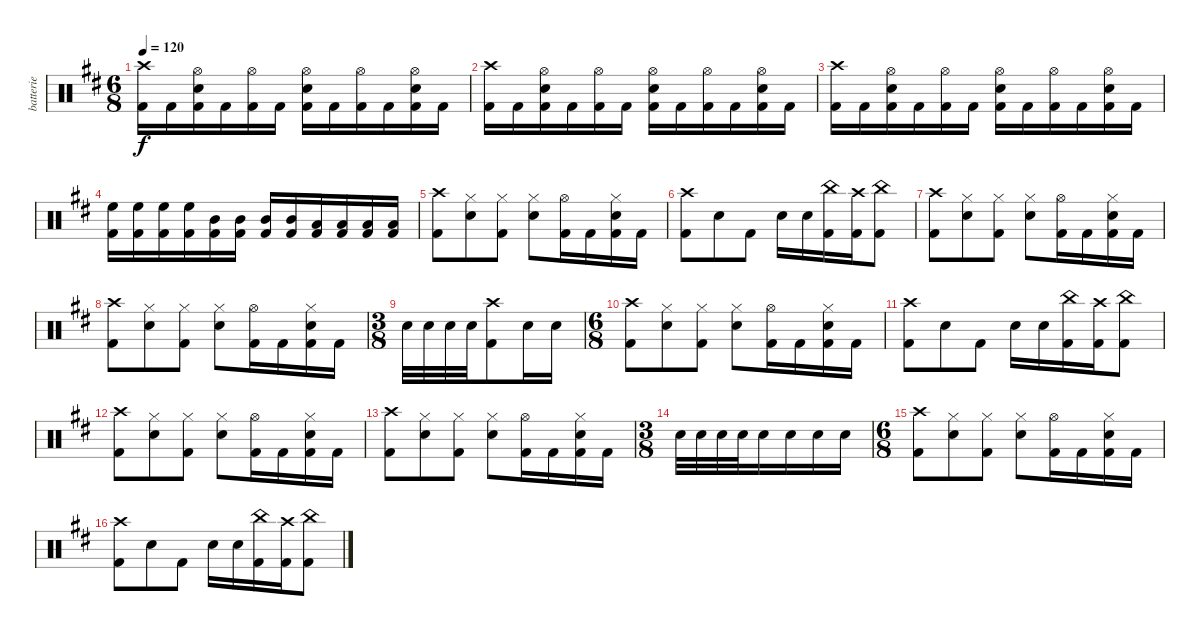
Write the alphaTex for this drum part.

\track ("batterie" "batterie") {instrument percussion}
\staff {score}
\articulation defaults
\ts (6 8)
\tempo 120
\clef neutral
\ks bminor
("Crash high (hit)" "Kick (hit) 2").16{dy f} "Kick (hit) 2".16 ("Hi-Hat (open)" "Snare (hit) 2" "Kick (hit) 2").16 "Kick (hit) 2".16 ("Hi-Hat (open)" "Kick (hit) 2").16 "Kick (hit) 2".16 ("Hi-Hat (open)" "Snare (hit) 2" "Kick (hit) 2").16 "Kick (hit) 2".16 ("Hi-Hat (open)" "Kick (hit) 2").16 "Kick (hit) 2".16 ("Hi-Hat (open)" "Snare (hit) 2" "Kick (hit) 2").16 "Kick (hit) 2".16 |
("Crash high (hit)" "Kick (hit) 2").16 "Kick (hit) 2".16 ("Hi-Hat (open)" "Snare (hit) 2" "Kick (hit) 2").16 "Kick (hit) 2".16 ("Hi-Hat (open)" "Kick (hit) 2").16 "Kick (hit) 2".16 ("Hi-Hat (open)" "Snare (hit) 2" "Kick (hit) 2").16 "Kick (hit) 2".16 ("Hi-Hat (open)" "Kick (hit) 2").16 "Kick (hit) 2".16 ("Hi-Hat (open)" "Snare (hit) 2" "Kick (hit) 2").16 "Kick (hit) 2".16 |
("Crash high (hit)" "Kick (hit) 2").16 "Kick (hit) 2".16 ("Hi-Hat (open)" "Snare (hit) 2" "Kick (hit) 2").16 "Kick (hit) 2".16 ("Hi-Hat (open)" "Kick (hit) 2").16 "Kick (hit) 2".16 ("Hi-Hat (open)" "Snare (hit) 2" "Kick (hit) 2").16 "Kick (hit) 2".16 ("Hi-Hat (open)" "Kick (hit) 2").16 "Kick (hit) 2".16 ("Hi-Hat (open)" "Snare (hit) 2" "Kick (hit) 2").16 "Kick (hit) 2".16 |
("High Floor Tom (hit)" "Kick (hit) 2").16 ("High Floor Tom (hit)" "Kick (hit) 2").16 ("High Floor Tom (hit)" "Kick (hit) 2").16 ("High Floor Tom (hit)" "Kick (hit) 2").16 ("Mid Tom (hit)" "Kick (hit) 2").16 ("Mid Tom (hit)" "Kick (hit) 2").16 ("Mid Tom (hit)" "Kick (hit) 2").16 ("Mid Tom (hit)" "Kick (hit) 2").16 ("Low Tom (hit)" "Kick (hit) 2").16 ("Low Tom (hit)" "Kick (hit) 2").16 ("Low Tom (hit)" "Kick (hit) 2").16 ("Low Tom (hit)" "Kick (hit) 2").16 |
("Crash high (hit)" "Kick (hit) 2").8 ("Hi-Hat (closed)" "Snare (hit) 2").8 ("Hi-Hat (closed)" "Kick (hit) 2").8 ("Hi-Hat (closed)" "Snare (hit) 2").8 ("Hi-Hat (open)" "Kick (hit) 2").16 "Kick (hit) 2".16 ("Hi-Hat (closed)" "Snare (hit) 2" "Kick (hit) 2").16 "Kick (hit) 2".16 |
("Crash high (hit)" "Kick (hit) 2").8 "Snare (hit) 2".8 "Kick (hit) 2".8 "Snare (hit) 2".16 "Snare (hit) 2".16 ("China (hit)" "Kick (hit) 2").16 ("Crash high (hit)" "Kick (hit) 2").16 ("China (hit)" "Kick (hit) 2").8 |
("Crash high (hit)" "Kick (hit) 2").8 ("Hi-Hat (closed)" "Snare (hit) 2").8 ("Hi-Hat (closed)" "Kick (hit) 2").8 ("Hi-Hat (closed)" "Snare (hit) 2").8 ("Hi-Hat (open)" "Kick (hit) 2").16 "Kick (hit) 2".16 ("Hi-Hat (closed)" "Snare (hit) 2" "Kick (hit) 2").16 "Kick (hit) 2".16 |
("Crash high (hit)" "Kick (hit) 2").8 ("Hi-Hat (closed)" "Snare (hit) 2").8 ("Hi-Hat (closed)" "Kick (hit) 2").8 ("Hi-Hat (closed)" "Snare (hit) 2").8 ("Hi-Hat (open)" "Kick (hit) 2").16 "Kick (hit) 2".16 ("Hi-Hat (closed)" "Snare (hit) 2" "Kick (hit) 2").16 "Kick (hit) 2".16 |
\ts (3 8)
"Snare (hit) 2".32 "Snare (hit) 2".32 "Snare (hit) 2".32 "Snare (hit) 2".32 ("Crash high (hit)" "Kick (hit) 2").8 "Snare (hit) 2".16 "Snare (hit) 2".16 |
\ts (6 8)
("Crash high (hit)" "Kick (hit) 2").8 ("Hi-Hat (closed)" "Snare (hit) 2").8 ("Hi-Hat (closed)" "Kick (hit) 2").8 ("Hi-Hat (closed)" "Snare (hit) 2").8 ("Hi-Hat (open)" "Kick (hit) 2").16 "Kick (hit) 2".16 ("Hi-Hat (closed)" "Snare (hit) 2" "Kick (hit) 2").16 "Kick (hit) 2".16 |
("Crash high (hit)" "Kick (hit) 2").8 "Snare (hit) 2".8 "Kick (hit) 2".8 "Snare (hit) 2".16 "Snare (hit) 2".16 ("China (hit)" "Kick (hit) 2").16 ("Crash high (hit)" "Kick (hit) 2").16 ("China (hit)" "Kick (hit) 2").8 |
("Crash high (hit)" "Kick (hit) 2").8 ("Hi-Hat (closed)" "Snare (hit) 2").8 ("Hi-Hat (closed)" "Kick (hit) 2").8 ("Hi-Hat (closed)" "Snare (hit) 2").8 ("Hi-Hat (open)" "Kick (hit) 2").16 "Kick (hit) 2".16 ("Hi-Hat (closed)" "Snare (hit) 2" "Kick (hit) 2").16 "Kick (hit) 2".16 |
("Crash high (hit)" "Kick (hit) 2").8 ("Hi-Hat (closed)" "Snare (hit) 2").8 ("Hi-Hat (closed)" "Kick (hit) 2").8 ("Hi-Hat (closed)" "Snare (hit) 2").8 ("Hi-Hat (open)" "Kick (hit) 2").16 "Kick (hit) 2".16 ("Hi-Hat (closed)" "Snare (hit) 2" "Kick (hit) 2").16 "Kick (hit) 2".16 |
\ts (3 8)
"Snare (hit) 2".32 "Snare (hit) 2".32 "Snare (hit) 2".32 "Snare (hit) 2".32 "Snare (hit) 2".16 "Snare (hit) 2".16 "Snare (hit) 2".16 "Snare (hit) 2".16 |
\ts (6 8)
("Crash high (hit)" "Kick (hit) 2").8 ("Hi-Hat (closed)" "Snare (hit) 2").8 ("Hi-Hat (closed)" "Kick (hit) 2").8 ("Hi-Hat (closed)" "Snare (hit) 2").8 ("Hi-Hat (open)" "Kick (hit) 2").16 "Kick (hit) 2".16 ("Hi-Hat (closed)" "Snare (hit) 2" "Kick (hit) 2").16 "Kick (hit) 2".16 |
("Crash high (hit)" "Kick (hit) 2").8 "Snare (hit) 2".8 "Kick (hit) 2".8 "Snare (hit) 2".16 "Snare (hit) 2".16 ("China (hit)" "Kick (hit) 2").16 ("Crash high (hit)" "Kick (hit) 2").16 ("China (hit)" "Kick (hit) 2").8
